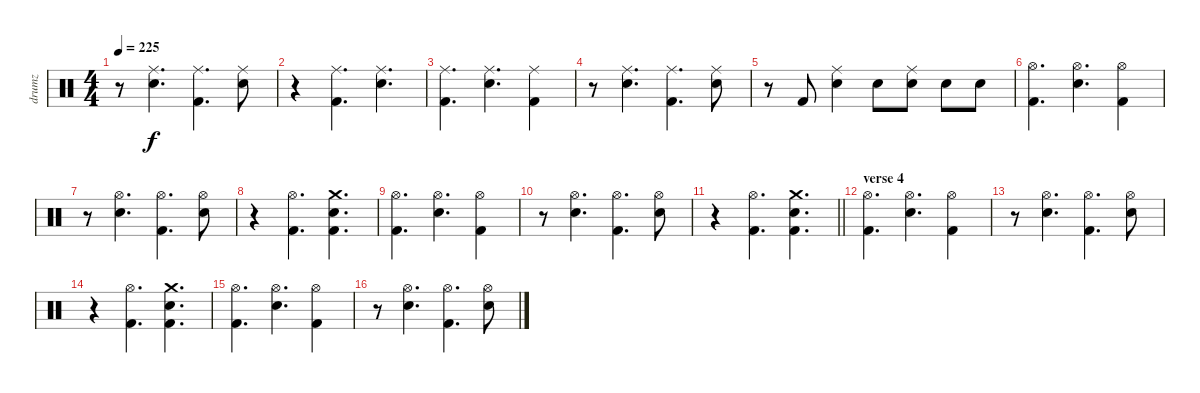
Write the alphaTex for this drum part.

\track ("drumz" "drumz") {instrument percussion}
\staff {score}
\articulation defaults
\ts (4 4)
\tempo 225
\clef neutral
\ks c
r.8{dy f} ("Ride (middle)" "Electric Snare (hit)").4{d} ("Ride (middle)" "Kick (hit) 2").4{d} ("Ride (middle)" "Electric Snare (hit)").8 |
r.4 ("Ride (middle)" "Kick (hit) 2").4{d} ("Ride (middle)" "Electric Snare (hit)").4{d} |
("Ride (middle)" "Kick (hit) 2").4{d} ("Ride (middle)" "Electric Snare (hit)").4{d} ("Ride (middle)" "Kick (hit) 2").4 |
r.8 ("Ride (middle)" "Electric Snare (hit)").4{d} ("Ride (middle)" "Kick (hit) 2").4{d} ("Ride (middle)" "Electric Snare (hit)").8 |
r.8 "Kick (hit) 2".8 ("Ride (middle)" "Electric Snare (hit)").4 "Electric Snare (hit)".8 ("Ride (middle)" "Electric Snare (hit)").8 "Electric Snare (hit)".8 "Electric Snare (hit)".8 |
("Hi-Hat (open)" "Kick (hit) 2").4{d} ("Hi-Hat (open)" "Electric Snare (hit)").4{d} ("Hi-Hat (open)" "Kick (hit) 2").4 |
r.8 ("Hi-Hat (open)" "Electric Snare (hit)").4{d} ("Hi-Hat (open)" "Kick (hit) 2").4{d} ("Hi-Hat (open)" "Electric Snare (hit)").8 |
r.4 ("Hi-Hat (open)" "Kick (hit) 2").4{d} ("Crash medium (hit)" "Electric Snare (hit)" "Kick (hit) 2").4{d} |
("Hi-Hat (open)" "Kick (hit) 2").4{d} ("Hi-Hat (open)" "Electric Snare (hit)").4{d} ("Hi-Hat (open)" "Kick (hit) 2").4 |
r.8 ("Hi-Hat (open)" "Electric Snare (hit)").4{d} ("Hi-Hat (open)" "Kick (hit) 2").4{d} ("Hi-Hat (open)" "Electric Snare (hit)").8 |
\barLineRight lightlight
r.4 ("Hi-Hat (open)" "Kick (hit) 2").4{d} ("Crash medium (hit)" "Electric Snare (hit)" "Kick (hit) 2").4{d} |
\section ("" "verse 4")
("Hi-Hat (open)" "Kick (hit) 2").4{d} ("Hi-Hat (open)" "Electric Snare (hit)").4{d} ("Hi-Hat (open)" "Kick (hit) 2").4 |
r.8 ("Hi-Hat (open)" "Electric Snare (hit)").4{d} ("Hi-Hat (open)" "Kick (hit) 2").4{d} ("Hi-Hat (open)" "Electric Snare (hit)").8 |
r.4 ("Hi-Hat (open)" "Kick (hit) 2").4{d} ("Crash medium (hit)" "Electric Snare (hit)" "Kick (hit) 2").4{d} |
("Hi-Hat (open)" "Kick (hit) 2").4{d} ("Hi-Hat (open)" "Electric Snare (hit)").4{d} ("Hi-Hat (open)" "Kick (hit) 2").4 |
r.8 ("Hi-Hat (open)" "Electric Snare (hit)").4{d} ("Hi-Hat (open)" "Kick (hit) 2").4{d} ("Hi-Hat (open)" "Electric Snare (hit)").8
